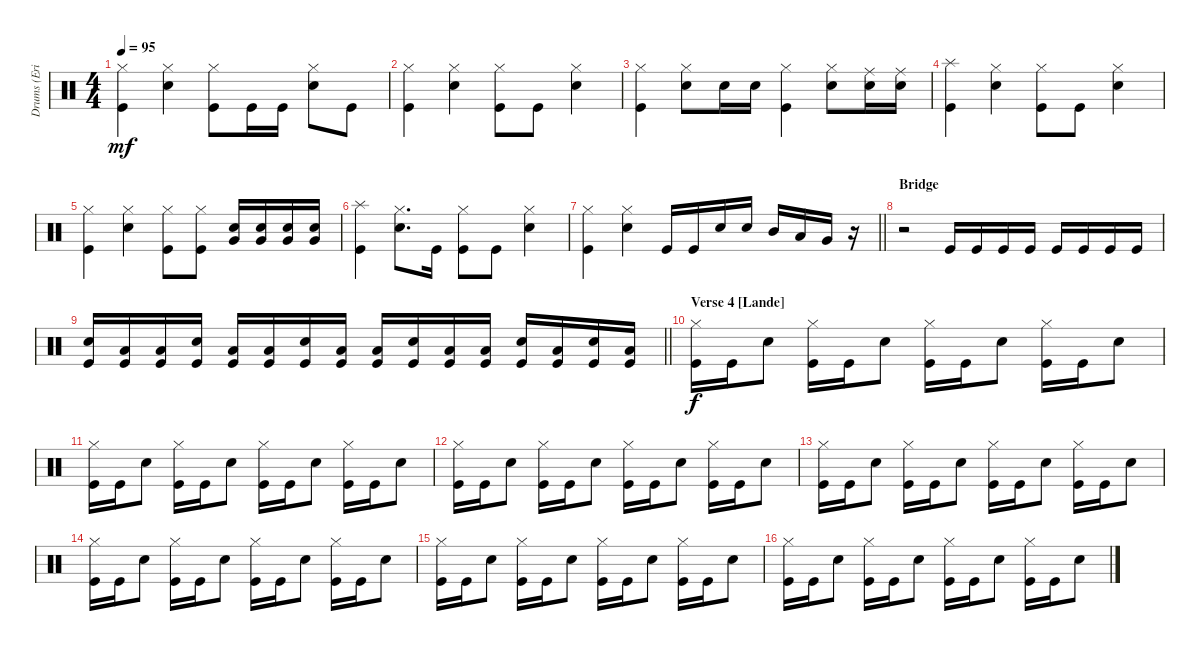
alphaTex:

\track ("Drums (Eric Singer)" "Drums (Eri") {instrument percussion}
\staff {score}
\articulation defaults
\ts (4 4)
\tempo 95
\clef neutral
\ks c
("Hi-Hat (closed)" "Kick (hit)").4{dy mf} ("Hi-Hat (closed)" "Snare (hit) 2").4 ("Hi-Hat (closed)" "Kick (hit)").8 "Kick (hit)".16 "Kick (hit)".16 ("Hi-Hat (closed)" "Snare (hit) 2").8 "Kick (hit)".8 |
("Hi-Hat (closed)" "Kick (hit)").4 ("Hi-Hat (closed)" "Snare (hit) 2").4 ("Hi-Hat (closed)" "Kick (hit)").8 "Kick (hit)".8 ("Hi-Hat (closed)" "Snare (hit) 2").4 |
("Hi-Hat (closed)" "Kick (hit)").4 ("Hi-Hat (closed)" "Snare (hit) 2").8 "Snare (hit) 2".16 "Snare (hit) 2".16 ("Hi-Hat (closed)" "Kick (hit)").4 ("Hi-Hat (closed)" "Snare (hit) 2").8 ("Ride (middle)" "Snare (hit) 2").16 ("Ride (middle)" "Snare (hit) 2").16 |
("Splash (hit)" "Kick (hit)").4 ("Hi-Hat (closed)" "Snare (hit) 2").4 ("Hi-Hat (closed)" "Kick (hit)").8 "Kick (hit)".8 ("Hi-Hat (closed)" "Snare (hit) 2").4 |
("Hi-Hat (closed)" "Kick (hit)").4 ("Hi-Hat (closed)" "Snare (hit) 2").4 ("Hi-Hat (closed)" "Kick (hit)").8 ("Hi-Hat (closed)" "Kick (hit)").8 ("Very Low Tom (hit)" "Snare (hit) 2").16 ("Very Low Tom (hit)" "Snare (hit) 2").16 ("Very Low Tom (hit)" "Snare (hit) 2").16 ("Very Low Tom (hit)" "Snare (hit) 2").16 |
("Splash (hit)" "Kick (hit)").4 ("Hi-Hat (closed)" "Snare (hit) 2").8{d} "Kick (hit)".16 ("Hi-Hat (closed)" "Kick (hit)").8 "Kick (hit)".8 ("Hi-Hat (closed)" "Snare (hit) 2").4 |
\barLineRight lightlight
("Hi-Hat (closed)" "Kick (hit)").4 ("Hi-Hat (closed)" "Snare (hit) 2").4 "Kick (hit)".16 "Kick (hit)".16 "Snare (hit) 2".16 "Snare (hit) 2".16 "Mid Tom (hit)".16 "Low Tom (hit)".16 "Very Low Tom (hit)".16 r.16 |
\section ("" "Bridge")
r.2 "Kick (hit)".16 "Kick (hit)".16 "Kick (hit)".16 "Kick (hit)".16 "Kick (hit)".16 "Kick (hit)".16 "Kick (hit)".16 "Kick (hit)".16 |
\barLineRight lightlight
("Snare (hit) 2" "Kick (hit)").16 ("Low Tom (hit)" "Kick (hit)").16 ("Low Tom (hit)" "Kick (hit)").16 ("Snare (hit) 2" "Kick (hit)").16 ("Low Tom (hit)" "Kick (hit)").16 ("Low Tom (hit)" "Kick (hit)").16 ("Snare (hit) 2" "Kick (hit)").16 ("Low Tom (hit)" "Kick (hit)").16 ("Low Tom (hit)" "Kick (hit)").16 ("Snare (hit) 2" "Kick (hit)").16 ("Low Tom (hit)" "Kick (hit)").16 ("Low Tom (hit)" "Kick (hit)").16 ("Snare (hit) 2" "Kick (hit)").16 ("Low Tom (hit)" "Kick (hit)").16 ("Hand Clap (hit)" "Kick (hit)").16 ("Low Tom (hit)" "Kick (hit)").16 |
\section ("" "Verse 4 [Lande]")
("Hi-Hat (closed)" "Kick (hit)").16{dy f} "Kick (hit)".16 "Snare (hit) 2".8 ("Hi-Hat (closed)" "Kick (hit)").16 "Kick (hit)".16 "Snare (hit) 2".8 ("Hi-Hat (closed)" "Kick (hit)").16 "Kick (hit)".16 "Snare (hit) 2".8 ("Hi-Hat (closed)" "Kick (hit)").16 "Kick (hit)".16 "Snare (hit) 2".8 |
("Hi-Hat (closed)" "Kick (hit)").16 "Kick (hit)".16 "Snare (hit) 2".8 ("Hi-Hat (closed)" "Kick (hit)").16 "Kick (hit)".16 "Snare (hit) 2".8 ("Hi-Hat (closed)" "Kick (hit)").16 "Kick (hit)".16 "Snare (hit) 2".8 ("Hi-Hat (closed)" "Kick (hit)").16 "Kick (hit)".16 "Snare (hit) 2".8 |
("Hi-Hat (closed)" "Kick (hit)").16 "Kick (hit)".16 "Snare (hit) 2".8 ("Hi-Hat (closed)" "Kick (hit)").16 "Kick (hit)".16 "Snare (hit) 2".8 ("Hi-Hat (closed)" "Kick (hit)").16 "Kick (hit)".16 "Snare (hit) 2".8 ("Hi-Hat (closed)" "Kick (hit)").16 "Kick (hit)".16 "Snare (hit) 2".8 |
("Hi-Hat (closed)" "Kick (hit)").16 "Kick (hit)".16 "Snare (hit) 2".8 ("Hi-Hat (closed)" "Kick (hit)").16 "Kick (hit)".16 "Snare (hit) 2".8 ("Hi-Hat (closed)" "Kick (hit)").16 "Kick (hit)".16 "Snare (hit) 2".8 ("Hi-Hat (closed)" "Kick (hit)").16 "Kick (hit)".16 "Snare (hit) 2".8 |
("Hi-Hat (closed)" "Kick (hit)").16 "Kick (hit)".16 "Snare (hit) 2".8 ("Hi-Hat (closed)" "Kick (hit)").16 "Kick (hit)".16 "Snare (hit) 2".8 ("Hi-Hat (closed)" "Kick (hit)").16 "Kick (hit)".16 "Snare (hit) 2".8 ("Hi-Hat (closed)" "Kick (hit)").16 "Kick (hit)".16 "Snare (hit) 2".8 |
("Hi-Hat (closed)" "Kick (hit)").16 "Kick (hit)".16 "Snare (hit) 2".8 ("Hi-Hat (closed)" "Kick (hit)").16 "Kick (hit)".16 "Snare (hit) 2".8 ("Hi-Hat (closed)" "Kick (hit)").16 "Kick (hit)".16 "Snare (hit) 2".8 ("Hi-Hat (closed)" "Kick (hit)").16 "Kick (hit)".16 "Snare (hit) 2".8 |
("Hi-Hat (closed)" "Kick (hit)").16 "Kick (hit)".16 "Snare (hit) 2".8 ("Hi-Hat (closed)" "Kick (hit)").16 "Kick (hit)".16 "Snare (hit) 2".8 ("Hi-Hat (closed)" "Kick (hit)").16 "Kick (hit)".16 "Snare (hit) 2".8 ("Hi-Hat (closed)" "Kick (hit)").16 "Kick (hit)".16 "Snare (hit) 2".8
